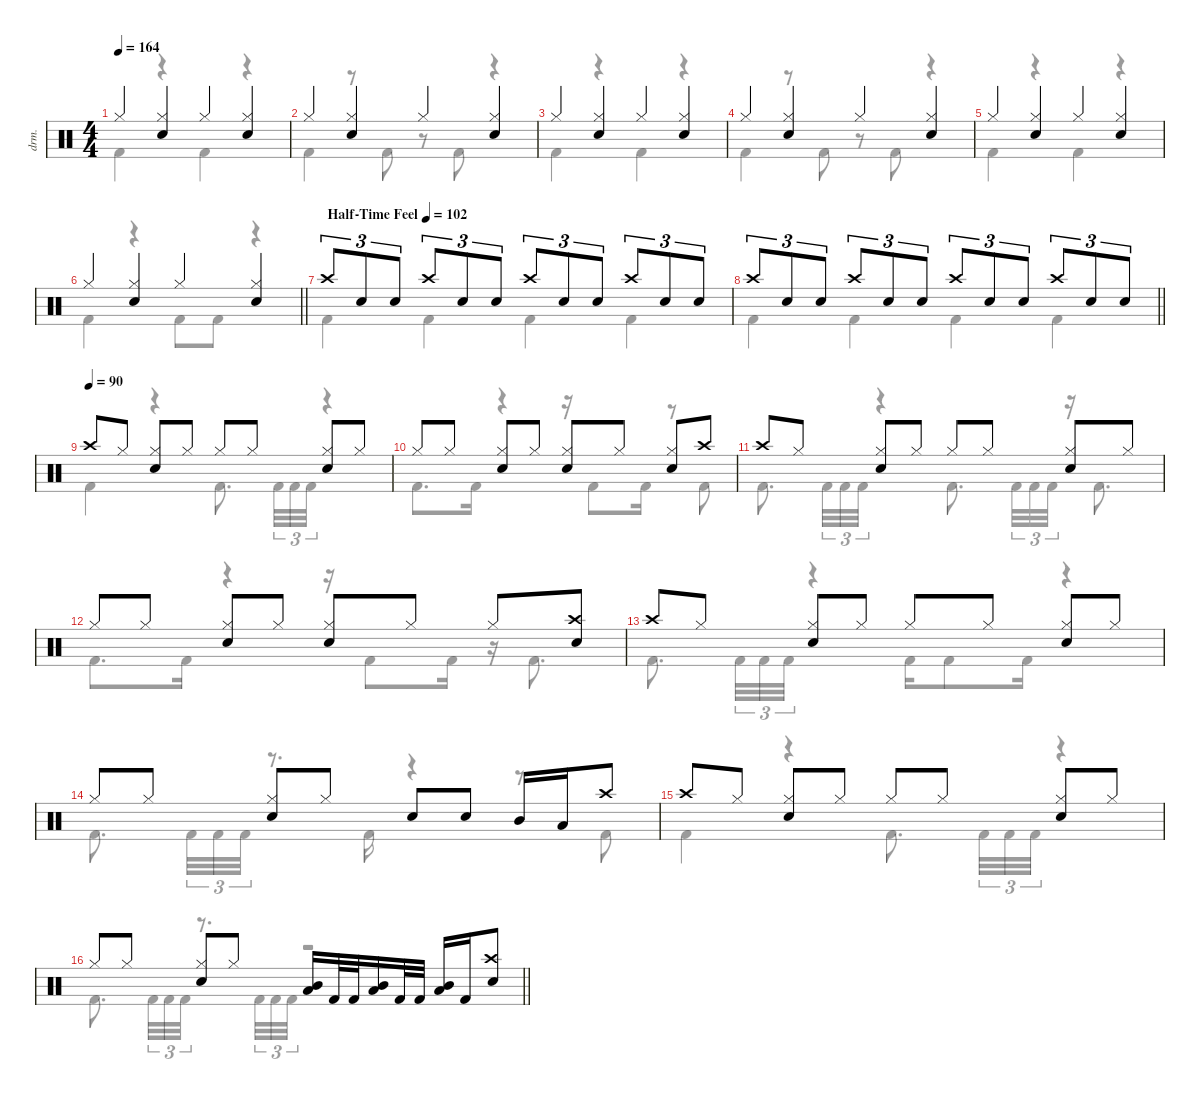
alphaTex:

\defaultSystemsLayout 4
\hideDynamics
\bracketExtendMode nobrackets
\otherSystemsTrackNameOrientation horizontal
\track ("Lars Ulrich" "drm.") {defaultSystemsLayout 8 instrument percussion}
\staff {score}
\articulation defaults
\voice
\ts (4 4)
\tempo 164
\clef neutral
\ks aminor "Hi-Hat (closed)".4{dy f beam Up}
("Hi-Hat (closed)" "Snare (hit) 2").4{beam Up} "Hi-Hat (closed)".4{beam Up} ("Hi-Hat (closed)" "Snare (hit) 2").4{beam Up} |
"Hi-Hat (closed)".4{beam Up} ("Hi-Hat (closed)" "Snare (hit) 2").4{beam Up} "Hi-Hat (closed)".4{beam Up} ("Hi-Hat (closed)" "Snare (hit) 2").4{beam Up} |
"Hi-Hat (closed)".4{beam Up} ("Hi-Hat (closed)" "Snare (hit) 2").4{beam Up} "Hi-Hat (closed)".4{beam Up} ("Hi-Hat (closed)" "Snare (hit) 2").4{beam Up} |
"Hi-Hat (closed)".4{beam Up} ("Hi-Hat (closed)" "Snare (hit) 2").4{beam Up} "Hi-Hat (closed)".4{beam Up} ("Hi-Hat (closed)" "Snare (hit) 2").4{beam Up} |
"Hi-Hat (closed)".4{beam Up} ("Hi-Hat (closed)" "Snare (hit) 2").4{beam Up} "Hi-Hat (closed)".4{beam Up} ("Hi-Hat (closed)" "Snare (hit) 2").4{beam Up} |
\barLineRight lightlight "Hi-Hat (closed)".4{beam Up}
("Hi-Hat (closed)" "Snare (hit) 2").4{beam Up} "Hi-Hat (closed)".4{beam Up} ("Hi-Hat (closed)" "Snare (hit) 2").4{beam Up} |
\tempo (102 "Half-Time Feel")
"Crash high (hit)".8{tu (3 2) beam Up} "Snare (hit) 2".8{tu (3 2) beam Up} "Snare (hit) 2".8{tu (3 2) beam Up} "Crash high (hit)".8{tu (3 2) beam Up} "Snare (hit) 2".8{tu (3 2) beam Up} "Snare (hit) 2".8{tu (3 2) beam Up} "Crash high (hit)".8{tu (3 2) beam Up} "Snare (hit) 2".8{tu (3 2) beam Up} "Snare (hit) 2".8{tu (3 2) beam Up} "Crash high (hit)".8{tu (3 2) beam Up} "Snare (hit) 2".8{tu (3 2) beam Up} "Snare (hit) 2".8{tu (3 2) beam Up} |
\barLineRight lightlight "Crash high (hit)".8{tu (3 2) beam Up} "Snare (hit) 2".8{tu (3 2) beam Up} "Snare (hit) 2".8{tu (3 2) beam Up} "Crash high (hit)".8{tu (3 2) beam Up} "Snare (hit) 2".8{tu (3 2) beam Up} "Snare (hit) 2".8{tu (3 2) beam Up} "Crash high (hit)".8{tu (3 2) beam Up} "Snare (hit) 2".8{tu (3 2) beam Up} "Snare (hit) 2".8{tu (3 2) beam Up} "Crash high (hit)".8{tu (3 2) beam Up} "Snare (hit) 2".8{tu (3 2) beam Up} "Snare (hit) 2".8{tu (3 2) beam Up}
|
\tempo (90)
"Crash high (hit)".8{beam Up} "Hi-Hat (closed)".8{beam Up} ("Hi-Hat (closed)" "Snare (hit) 2").8{beam Up} "Hi-Hat (closed)".8{beam Up} "Hi-Hat (closed)".8{beam Up} "Hi-Hat (closed)".8{beam Up} ("Hi-Hat (closed)" "Snare (hit) 2").8{beam Up} "Hi-Hat (closed)".8{beam Up} |
"Hi-Hat (closed)".8{beam Up} "Hi-Hat (closed)".8{beam Up} ("Hi-Hat (closed)" "Snare (hit) 2").8{beam Up} "Hi-Hat (closed)".8{beam Up} ("Hi-Hat (closed)" "Snare (hit) 2").8{beam Up} "Hi-Hat (closed)".8{beam Up} ("Hi-Hat (closed)" "Snare (hit) 2").8{beam Up} "Crash high (hit)".8{beam Up} |
"Crash high (hit)".8{beam Up} "Hi-Hat (closed)".8{beam Up} ("Hi-Hat (closed)" "Snare (hit) 2").8{beam Up} "Hi-Hat (closed)".8{beam Up} "Hi-Hat (closed)".8{beam Up} "Hi-Hat (closed)".8{beam Up} ("Hi-Hat (closed)" "Snare (hit) 2").8{beam Up} "Hi-Hat (closed)".8{beam Up} |
"Hi-Hat (closed)".8{beam Up} "Hi-Hat (closed)".8{beam Up} ("Hi-Hat (closed)" "Snare (hit) 2").8{beam Up} "Hi-Hat (closed)".8{beam Up} ("Hi-Hat (closed)" "Snare (hit) 2").8{beam Up} "Hi-Hat (closed)".8{beam Up} "Hi-Hat (closed)".8{beam Up} ("Crash high (hit)" "Snare (hit) 2").8{beam Up} |
"Crash high (hit)".8{beam Up} "Hi-Hat (closed)".8{beam Up} ("Hi-Hat (closed)" "Snare (hit) 2").8{beam Up} "Hi-Hat (closed)".8{beam Up} "Hi-Hat (closed)".8{beam Up} "Hi-Hat (closed)".8{beam Up} ("Hi-Hat (closed)" "Snare (hit) 2").8{beam Up} "Hi-Hat (closed)".8{beam Up} |
"Hi-Hat (closed)".8{beam Up} "Hi-Hat (closed)".8{beam Up} ("Hi-Hat (closed)" "Snare (hit) 2").8{beam Up} "Hi-Hat (closed)".8{beam Up} "Snare (hit) 2".8{beam Up} "Snare (hit) 2".8{beam Up} "Mid Tom (hit)".16{beam Up} "Low Tom (hit)".16{beam Up} "Crash high (hit)".8{beam Up} |
"Crash high (hit)".8{beam Up} "Hi-Hat (closed)".8{beam Up} ("Hi-Hat (closed)" "Snare (hit) 2").8{beam Up} "Hi-Hat (closed)".8{beam Up} "Hi-Hat (closed)".8{beam Up} "Hi-Hat (closed)".8{beam Up} ("Hi-Hat (closed)" "Snare (hit) 2").8{beam Up} "Hi-Hat (closed)".8{beam Up} |
\barLineRight lightlight "Hi-Hat (closed)".8{beam Up} "Hi-Hat (closed)".8{beam Up}
("Hi-Hat (closed)" "Snare (hit) 2").8{beam Up} "Hi-Hat (closed)".8{beam Up} ("Mid Tom (hit)" "Low Tom (hit)").16{beam Up} "Kick (hit) 2".32{beam Up} "Kick (hit) 2".32{beam Up} ("Mid Tom (hit)" "Low Tom (hit)").16{beam Up} "Kick (hit) 2".32{beam Up} "Kick (hit) 2".32{beam Up} ("Mid Tom (hit)" "Low Tom (hit)").16{beam Up} "Kick (hit) 2".16{beam Up} ("Crash high (hit)" "Snare (hit) 2").8{beam Up}
\voice
\clef neutral
\ottava regular
\simile none
\ks aminor "Kick (hit) 2".4{dy f beam Down}
r.4{beam Down} "Kick (hit) 2".4{beam Down} r.4{beam Down} |
"Kick (hit) 2".4{beam Down} r.8{beam Down} "Kick (hit) 2".8{beam Down} r.8{beam Down} "Kick (hit) 2".8{beam Down} r.4{beam Down} |
"Kick (hit) 2".4{beam Down} r.4{beam Down} "Kick (hit) 2".4{beam Down} r.4{beam Down} |
"Kick (hit) 2".4{beam Down} r.8{beam Down} "Kick (hit) 2".8{beam Down} r.8{beam Down} "Kick (hit) 2".8{beam Down} r.4{beam Down} |
"Kick (hit) 2".4{beam Down} r.4{beam Down} "Kick (hit) 2".4{beam Down} r.4{beam Down} |
\barLineRight lightlight "Kick (hit) 2".4{beam Down}
r.4{beam Down} "Kick (hit) 2".8{beam Down} "Kick (hit) 2".8{beam Down} r.4{beam Down} |
"Kick (hit) 2".4{beam Down} "Kick (hit) 2".4{beam Down} "Kick (hit) 2".4{beam Down} "Kick (hit) 2".4{beam Down} |
\barLineRight lightlight "Kick (hit) 2".4{beam Down} "Kick (hit) 2".4{beam Down} "Kick (hit) 2".4{beam Down} "Kick (hit) 2".4{beam Down}
|
"Kick (hit) 2".4{beam Down} r.4{beam Down} "Kick (hit) 2".8{d beam Down} "Kick (hit) 2".32{tu (3 2) beam Down} "Kick (hit) 2".32{tu (3 2) beam Down} "Kick (hit) 2".32{tu (3 2) beam Down} r.4{beam Down} |
"Kick (hit) 2".8{d beam Down} "Kick (hit) 2".16{beam Down} r.4{beam Down} r.16{beam Down} "Kick (hit) 2".8{beam Down} "Kick (hit) 2".16{beam Down} r.8{beam Down} "Kick (hit) 2".8{beam Down} |
"Kick (hit) 2".8{d beam Down} "Kick (hit) 2".32{tu (3 2) beam Down} "Kick (hit) 2".32{tu (3 2) beam Down} "Kick (hit) 2".32{tu (3 2) beam Down} r.4{beam Down} "Kick (hit) 2".8{d beam Down} "Kick (hit) 2".32{tu (3 2) beam Down} "Kick (hit) 2".32{tu (3 2) beam Down} "Kick (hit) 2".32{tu (3 2) beam Down} r.16{beam Down} "Kick (hit) 2".8{d beam Down} |
"Kick (hit) 2".8{d beam Down} "Kick (hit) 2".16{beam Down} r.4{beam Down} r.16{beam Down} "Kick (hit) 2".8{beam Down} "Kick (hit) 2".16{beam Down} r.16{beam Down} "Kick (hit) 2".8{d beam Down} |
"Kick (hit) 2".8{d beam Down} "Kick (hit) 2".32{tu (3 2) beam Down} "Kick (hit) 2".32{tu (3 2) beam Down} "Kick (hit) 2".32{tu (3 2) beam Down} r.4{beam Down} "Kick (hit) 2".16{beam Down} "Kick (hit) 2".8{beam Down} "Kick (hit) 2".16{beam Down} r.4{beam Down} |
"Kick (hit) 2".8{d beam Down} "Kick (hit) 2".32{tu (3 2) beam Down} "Kick (hit) 2".32{tu (3 2) beam Down} "Kick (hit) 2".32{tu (3 2) beam Down} r.8{d beam Down} "Kick (hit) 2".16{beam Down} r.4{beam Down} r.8{beam Down} "Kick (hit) 2".8{beam Down} |
"Kick (hit) 2".4{beam Down} r.4{beam Down} "Kick (hit) 2".8{d beam Down} "Kick (hit) 2".32{tu (3 2) beam Down} "Kick (hit) 2".32{tu (3 2) beam Down} "Kick (hit) 2".32{tu (3 2) beam Down} r.4{beam Down} |
\barLineRight lightlight "Kick (hit) 2".8{d beam Down} "Kick (hit) 2".32{tu (3 2) beam Down} "Kick (hit) 2".32{tu (3 2) beam Down} "Kick (hit) 2".32{tu (3 2) beam Down}
r.8{d beam Down} "Kick (hit) 2".32{tu (3 2) beam Down} "Kick (hit) 2".32{tu (3 2) beam Down} "Kick (hit) 2".32{tu (3 2) beam Down} r.2{beam Down}
